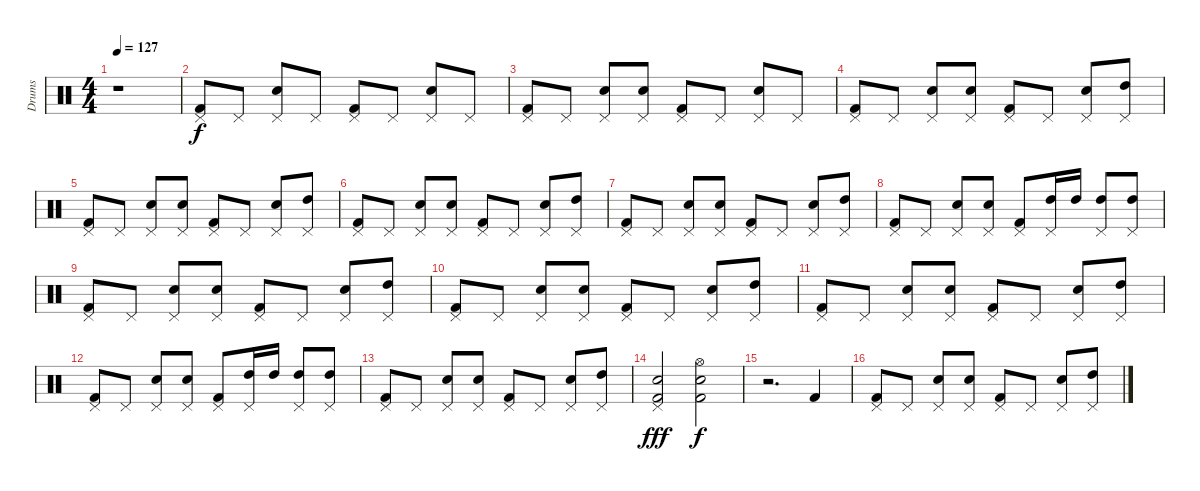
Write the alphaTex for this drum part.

\track ("Drums" "Drums") {instrument percussion}
\staff {score}
\articulation defaults
\ts (4 4)
\tempo 127
\clef neutral
\ks c
r.1{dy f} |
("Pedal Hi-Hat (hit)" "Kick (hit) 2").8 "Pedal Hi-Hat (hit)".8 ("Pedal Hi-Hat (hit)" "Snare (hit) 2").8 "Pedal Hi-Hat (hit)".8 ("Pedal Hi-Hat (hit)" "Kick (hit) 2").8 "Pedal Hi-Hat (hit)".8 ("Pedal Hi-Hat (hit)" "Snare (hit) 2").8 "Pedal Hi-Hat (hit)".8 |
("Pedal Hi-Hat (hit)" "Kick (hit) 2").8 "Pedal Hi-Hat (hit)".8 ("Pedal Hi-Hat (hit)" "Snare (hit) 2").8 ("Pedal Hi-Hat (hit)" "Snare (hit) 2").8 ("Pedal Hi-Hat (hit)" "Kick (hit) 2").8 "Pedal Hi-Hat (hit)".8 ("Pedal Hi-Hat (hit)" "Snare (hit) 2").8 "Pedal Hi-Hat (hit)".8 |
("Pedal Hi-Hat (hit)" "Kick (hit) 2").8 "Pedal Hi-Hat (hit)".8 ("Pedal Hi-Hat (hit)" "Snare (hit) 2").8 ("Pedal Hi-Hat (hit)" "Snare (hit) 2").8 ("Pedal Hi-Hat (hit)" "Kick (hit) 2").8 "Pedal Hi-Hat (hit)".8 ("Pedal Hi-Hat (hit)" "Snare (hit) 2").8 ("Pedal Hi-Hat (hit)" "High Tom (hit)").8 |
("Pedal Hi-Hat (hit)" "Kick (hit) 2").8 "Pedal Hi-Hat (hit)".8 ("Pedal Hi-Hat (hit)" "Snare (hit) 2").8 ("Pedal Hi-Hat (hit)" "Snare (hit) 2").8 ("Pedal Hi-Hat (hit)" "Kick (hit) 2").8 "Pedal Hi-Hat (hit)".8 ("Pedal Hi-Hat (hit)" "Snare (hit) 2").8 ("Pedal Hi-Hat (hit)" "High Tom (hit)").8 |
("Pedal Hi-Hat (hit)" "Kick (hit) 2").8 "Pedal Hi-Hat (hit)".8 ("Pedal Hi-Hat (hit)" "Snare (hit) 2").8 ("Pedal Hi-Hat (hit)" "Snare (hit) 2").8 ("Pedal Hi-Hat (hit)" "Kick (hit) 2").8 "Pedal Hi-Hat (hit)".8 ("Pedal Hi-Hat (hit)" "Snare (hit) 2").8 ("Pedal Hi-Hat (hit)" "High Tom (hit)").8 |
("Pedal Hi-Hat (hit)" "Kick (hit) 2").8 "Pedal Hi-Hat (hit)".8 ("Pedal Hi-Hat (hit)" "Snare (hit) 2").8 ("Pedal Hi-Hat (hit)" "Snare (hit) 2").8 ("Pedal Hi-Hat (hit)" "Kick (hit) 2").8 "Pedal Hi-Hat (hit)".8 ("Pedal Hi-Hat (hit)" "Snare (hit) 2").8 ("Pedal Hi-Hat (hit)" "High Tom (hit)").8 |
("Pedal Hi-Hat (hit)" "Kick (hit) 2").8 "Pedal Hi-Hat (hit)".8 ("Pedal Hi-Hat (hit)" "Snare (hit) 2").8 ("Pedal Hi-Hat (hit)" "Snare (hit) 2").8 ("Pedal Hi-Hat (hit)" "Kick (hit) 2").8 ("Pedal Hi-Hat (hit)" "High Tom (hit)").16 "High Tom (hit)".16 ("Pedal Hi-Hat (hit)" "High Tom (hit)").8 ("Pedal Hi-Hat (hit)" "High Tom (hit)").8 |
("Pedal Hi-Hat (hit)" "Kick (hit) 2").8 "Pedal Hi-Hat (hit)".8 ("Pedal Hi-Hat (hit)" "Snare (hit) 2").8 ("Pedal Hi-Hat (hit)" "Snare (hit) 2").8 ("Pedal Hi-Hat (hit)" "Kick (hit) 2").8 "Pedal Hi-Hat (hit)".8 ("Pedal Hi-Hat (hit)" "Snare (hit) 2").8 ("Pedal Hi-Hat (hit)" "High Tom (hit)").8 |
("Pedal Hi-Hat (hit)" "Kick (hit) 2").8 "Pedal Hi-Hat (hit)".8 ("Pedal Hi-Hat (hit)" "Snare (hit) 2").8 ("Pedal Hi-Hat (hit)" "Snare (hit) 2").8 ("Pedal Hi-Hat (hit)" "Kick (hit) 2").8 "Pedal Hi-Hat (hit)".8 ("Pedal Hi-Hat (hit)" "Snare (hit) 2").8 ("Pedal Hi-Hat (hit)" "High Tom (hit)").8 |
("Pedal Hi-Hat (hit)" "Kick (hit) 2").8 "Pedal Hi-Hat (hit)".8 ("Pedal Hi-Hat (hit)" "Snare (hit) 2").8 ("Pedal Hi-Hat (hit)" "Snare (hit) 2").8 ("Pedal Hi-Hat (hit)" "Kick (hit) 2").8 "Pedal Hi-Hat (hit)".8 ("Pedal Hi-Hat (hit)" "Snare (hit) 2").8 ("Pedal Hi-Hat (hit)" "High Tom (hit)").8 |
("Pedal Hi-Hat (hit)" "Kick (hit) 2").8 "Pedal Hi-Hat (hit)".8 ("Pedal Hi-Hat (hit)" "Snare (hit) 2").8 ("Pedal Hi-Hat (hit)" "Snare (hit) 2").8 ("Pedal Hi-Hat (hit)" "Kick (hit) 2").8 ("Pedal Hi-Hat (hit)" "High Tom (hit)").16 "High Tom (hit)".16 ("Pedal Hi-Hat (hit)" "High Tom (hit)").8 ("Pedal Hi-Hat (hit)" "High Tom (hit)").8 |
("Pedal Hi-Hat (hit)" "Kick (hit) 2").8 "Pedal Hi-Hat (hit)".8 ("Pedal Hi-Hat (hit)" "Snare (hit) 2").8 ("Pedal Hi-Hat (hit)" "Snare (hit) 2").8 ("Pedal Hi-Hat (hit)" "Kick (hit) 2").8 "Pedal Hi-Hat (hit)".8 ("Pedal Hi-Hat (hit)" "Snare (hit) 2").8 ("Pedal Hi-Hat (hit)" "High Tom (hit)").8 |
("Pedal Hi-Hat (hit)" "Snare (hit) 2" "Kick (hit) 2").2{dy fff} ("Hi-Hat (open)" "Snare (hit) 2" "Kick (hit) 2").2{dy f} |
r.2{d} "Kick (hit) 2".4 |
("Pedal Hi-Hat (hit)" "Kick (hit) 2").8 "Pedal Hi-Hat (hit)".8 ("Pedal Hi-Hat (hit)" "Snare (hit) 2").8 ("Pedal Hi-Hat (hit)" "Snare (hit) 2").8 ("Pedal Hi-Hat (hit)" "Kick (hit) 2").8 "Pedal Hi-Hat (hit)".8 ("Pedal Hi-Hat (hit)" "Snare (hit) 2").8 ("Pedal Hi-Hat (hit)" "High Tom (hit)").8
